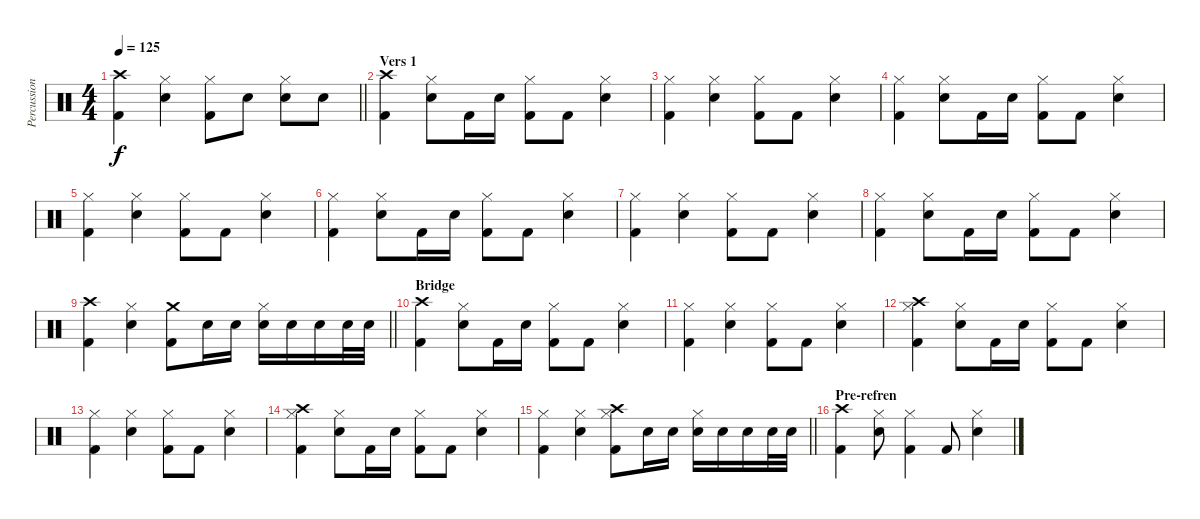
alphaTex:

\track ("Percussion" "Percussion") {instrument percussion}
\staff {score}
\articulation defaults
\ts (4 4)
\tempo 125
\clef neutral
\barLineRight lightlight
\ks c
("Kick (hit) 2" "Crash high (hit)").4{dy f} ("Electric Snare (hit)" "Hi-Hat (closed)").4 ("Kick (hit) 2" "Hi-Hat (closed)").8 "Electric Snare (hit)".8 ("Electric Snare (hit)" "Hi-Hat (closed)").8 "Electric Snare (hit)".8 |
\section ("" "Vers 1")
("Kick (hit) 2" "Crash high (hit)").4 ("Electric Snare (hit)" "Hi-Hat (closed)").8 "Kick (hit) 2".16 "Electric Snare (hit)".16 ("Kick (hit) 2" "Hi-Hat (closed)").8 "Kick (hit) 2".8 ("Electric Snare (hit)" "Hi-Hat (closed)").4 |
("Kick (hit) 2" "Hi-Hat (closed)").4 ("Electric Snare (hit)" "Hi-Hat (closed)").4 ("Kick (hit) 2" "Hi-Hat (closed)").8 "Kick (hit) 2".8 ("Electric Snare (hit)" "Hi-Hat (closed)").4 |
("Kick (hit) 2" "Hi-Hat (closed)").4 ("Electric Snare (hit)" "Hi-Hat (closed)").8 "Kick (hit) 2".16 "Electric Snare (hit)".16 ("Kick (hit) 2" "Hi-Hat (closed)").8 "Kick (hit) 2".8 ("Electric Snare (hit)" "Hi-Hat (closed)").4 |
("Kick (hit) 2" "Hi-Hat (closed)").4 ("Electric Snare (hit)" "Hi-Hat (closed)").4 ("Kick (hit) 2" "Hi-Hat (closed)").8 "Kick (hit) 2".8 ("Electric Snare (hit)" "Hi-Hat (closed)").4 |
("Kick (hit) 2" "Hi-Hat (closed)").4 ("Electric Snare (hit)" "Hi-Hat (closed)").8 "Kick (hit) 2".16 "Electric Snare (hit)".16 ("Kick (hit) 2" "Hi-Hat (closed)").8 "Kick (hit) 2".8 ("Electric Snare (hit)" "Hi-Hat (closed)").4 |
("Kick (hit) 2" "Hi-Hat (closed)").4 ("Electric Snare (hit)" "Hi-Hat (closed)").4 ("Kick (hit) 2" "Hi-Hat (closed)").8 "Kick (hit) 2".8 ("Electric Snare (hit)" "Hi-Hat (closed)").4 |
("Kick (hit) 2" "Hi-Hat (closed)").4 ("Electric Snare (hit)" "Hi-Hat (closed)").8 "Kick (hit) 2".16 "Electric Snare (hit)".16 ("Kick (hit) 2" "Hi-Hat (closed)").8 "Kick (hit) 2".8 ("Electric Snare (hit)" "Hi-Hat (closed)").4 |
\barLineRight lightlight
("Kick (hit) 2" "Crash high (hit)").4 ("Electric Snare (hit)" "Hi-Hat (closed)").4 ("Kick (hit) 2" "Crash medium (hit)").8 "Electric Snare (hit)".16 "Electric Snare (hit)".16 ("Electric Snare (hit)" "Hi-Hat (closed)").16 "Electric Snare (hit)".16 "Electric Snare (hit)".16 "Electric Snare (hit)".32 "Electric Snare (hit)".32 |
\section ("" "Bridge")
("Kick (hit) 2" "Crash high (hit)").4 ("Electric Snare (hit)" "Hi-Hat (closed)").8 "Kick (hit) 2".16 "Electric Snare (hit)".16 ("Kick (hit) 2" "Hi-Hat (closed)").8 "Kick (hit) 2".8 ("Electric Snare (hit)" "Hi-Hat (closed)").4 |
("Kick (hit) 2" "Hi-Hat (closed)").4 ("Electric Snare (hit)" "Hi-Hat (closed)").4 ("Kick (hit) 2" "Hi-Hat (closed)").8 "Kick (hit) 2".8 ("Electric Snare (hit)" "Hi-Hat (closed)").4 |
("Kick (hit) 2" "Hi-Hat (closed)" "Crash high (hit)").4 ("Electric Snare (hit)" "Hi-Hat (closed)").8 "Kick (hit) 2".16 "Electric Snare (hit)".16 ("Kick (hit) 2" "Hi-Hat (closed)").8 "Kick (hit) 2".8 ("Electric Snare (hit)" "Hi-Hat (closed)").4 |
("Kick (hit) 2" "Hi-Hat (closed)").4 ("Electric Snare (hit)" "Hi-Hat (closed)").4 ("Kick (hit) 2" "Hi-Hat (closed)").8 "Kick (hit) 2".8 ("Electric Snare (hit)" "Hi-Hat (closed)").4 |
("Kick (hit) 2" "Hi-Hat (closed)" "Crash high (hit)").4 ("Electric Snare (hit)" "Hi-Hat (closed)").8 "Kick (hit) 2".16 "Electric Snare (hit)".16 ("Kick (hit) 2" "Hi-Hat (closed)").8 "Kick (hit) 2".8 ("Electric Snare (hit)" "Hi-Hat (closed)").4 |
\barLineRight lightlight
("Kick (hit) 2" "Hi-Hat (closed)").4 ("Electric Snare (hit)" "Hi-Hat (closed)").4 ("Kick (hit) 2" "Hi-Hat (closed)" "Crash high (hit)").8 "Electric Snare (hit)".16 "Electric Snare (hit)".16 ("Electric Snare (hit)" "Hi-Hat (closed)").16 "Electric Snare (hit)".16 "Electric Snare (hit)".16 "Electric Snare (hit)".32 "Electric Snare (hit)".32 |
\section ("" "Pre-refren")
("Kick (hit) 2" "Crash high (hit)").4 ("Electric Snare (hit)" "Hi-Hat (closed)").8 ("Kick (hit) 2" "Hi-Hat (closed)").4 "Kick (hit) 2".8 ("Electric Snare (hit)" "Hi-Hat (closed)").4
